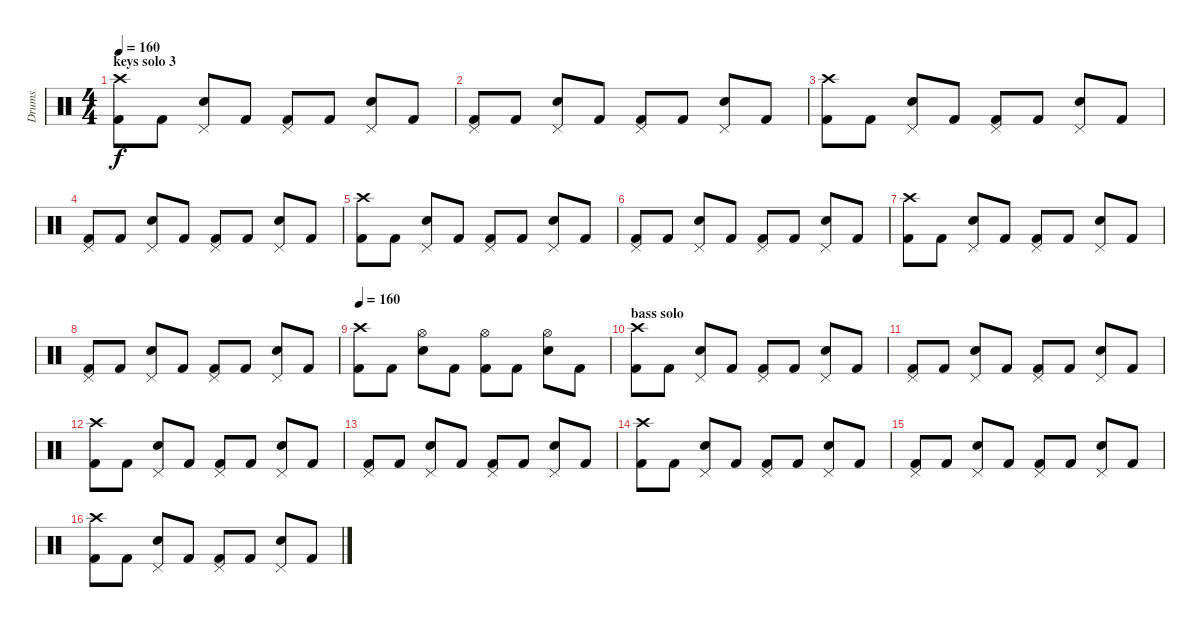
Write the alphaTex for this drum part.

\track ("Drums" "Drums") {instrument percussion}
\staff {score}
\articulation defaults
\ts (4 4)
\section ("" "keys solo 3")
\tempo 160
\clef neutral
\ks c
("Crash high (hit)" "Kick (hit) 2").8{dy f} "Kick (hit) 2".8 ("Pedal Hi-Hat (hit)" "Electric Snare (hit)").8 "Kick (hit) 2".8 ("Pedal Hi-Hat (hit)" "Kick (hit) 2").8 "Kick (hit) 2".8 ("Pedal Hi-Hat (hit)" "Electric Snare (hit)").8 "Kick (hit) 2".8 |
("Pedal Hi-Hat (hit)" "Kick (hit) 2").8 "Kick (hit) 2".8 ("Pedal Hi-Hat (hit)" "Electric Snare (hit)").8 "Kick (hit) 2".8 ("Pedal Hi-Hat (hit)" "Kick (hit) 2").8 "Kick (hit) 2".8 ("Pedal Hi-Hat (hit)" "Electric Snare (hit)").8 "Kick (hit) 2".8 |
("Crash high (hit)" "Kick (hit) 2").8 "Kick (hit) 2".8 ("Pedal Hi-Hat (hit)" "Electric Snare (hit)").8 "Kick (hit) 2".8 ("Pedal Hi-Hat (hit)" "Kick (hit) 2").8 "Kick (hit) 2".8 ("Pedal Hi-Hat (hit)" "Electric Snare (hit)").8 "Kick (hit) 2".8 |
("Pedal Hi-Hat (hit)" "Kick (hit) 2").8 "Kick (hit) 2".8 ("Pedal Hi-Hat (hit)" "Electric Snare (hit)").8 "Kick (hit) 2".8 ("Pedal Hi-Hat (hit)" "Kick (hit) 2").8 "Kick (hit) 2".8 ("Pedal Hi-Hat (hit)" "Electric Snare (hit)").8 "Kick (hit) 2".8 |
("Crash high (hit)" "Kick (hit) 2").8 "Kick (hit) 2".8 ("Pedal Hi-Hat (hit)" "Electric Snare (hit)").8 "Kick (hit) 2".8 ("Pedal Hi-Hat (hit)" "Kick (hit) 2").8 "Kick (hit) 2".8 ("Pedal Hi-Hat (hit)" "Electric Snare (hit)").8 "Kick (hit) 2".8 |
("Pedal Hi-Hat (hit)" "Kick (hit) 2").8 "Kick (hit) 2".8 ("Pedal Hi-Hat (hit)" "Electric Snare (hit)").8 "Kick (hit) 2".8 ("Pedal Hi-Hat (hit)" "Kick (hit) 2").8 "Kick (hit) 2".8 ("Pedal Hi-Hat (hit)" "Electric Snare (hit)").8 "Kick (hit) 2".8 |
("Crash high (hit)" "Kick (hit) 2").8 "Kick (hit) 2".8 ("Pedal Hi-Hat (hit)" "Electric Snare (hit)").8 "Kick (hit) 2".8 ("Pedal Hi-Hat (hit)" "Kick (hit) 2").8 "Kick (hit) 2".8 ("Pedal Hi-Hat (hit)" "Electric Snare (hit)").8 "Kick (hit) 2".8 |
("Pedal Hi-Hat (hit)" "Kick (hit) 2").8 "Kick (hit) 2".8 ("Pedal Hi-Hat (hit)" "Electric Snare (hit)").8 "Kick (hit) 2".8 ("Pedal Hi-Hat (hit)" "Kick (hit) 2").8 "Kick (hit) 2".8 ("Pedal Hi-Hat (hit)" "Electric Snare (hit)").8 "Kick (hit) 2".8 |
\tempo 160
("Crash high (hit)" "Kick (hit) 2").8 "Kick (hit) 2".8 ("Hi-Hat (open)" "Electric Snare (hit)").8 "Kick (hit) 2".8 ("Hi-Hat (open)" "Kick (hit) 2").8 "Kick (hit) 2".8 ("Hi-Hat (open)" "Electric Snare (hit)").8 "Kick (hit) 2".8 |
\section ("" "bass solo")
("Crash high (hit)" "Kick (hit) 2").8 "Kick (hit) 2".8 ("Pedal Hi-Hat (hit)" "Electric Snare (hit)").8 "Kick (hit) 2".8 ("Pedal Hi-Hat (hit)" "Kick (hit) 2").8 "Kick (hit) 2".8 ("Pedal Hi-Hat (hit)" "Electric Snare (hit)").8 "Kick (hit) 2".8 |
("Pedal Hi-Hat (hit)" "Kick (hit) 2").8 "Kick (hit) 2".8 ("Pedal Hi-Hat (hit)" "Electric Snare (hit)").8 "Kick (hit) 2".8 ("Pedal Hi-Hat (hit)" "Kick (hit) 2").8 "Kick (hit) 2".8 ("Pedal Hi-Hat (hit)" "Electric Snare (hit)").8 "Kick (hit) 2".8 |
("Crash high (hit)" "Kick (hit) 2").8 "Kick (hit) 2".8 ("Pedal Hi-Hat (hit)" "Electric Snare (hit)").8 "Kick (hit) 2".8 ("Pedal Hi-Hat (hit)" "Kick (hit) 2").8 "Kick (hit) 2".8 ("Pedal Hi-Hat (hit)" "Electric Snare (hit)").8 "Kick (hit) 2".8 |
("Pedal Hi-Hat (hit)" "Kick (hit) 2").8 "Kick (hit) 2".8 ("Pedal Hi-Hat (hit)" "Electric Snare (hit)").8 "Kick (hit) 2".8 ("Pedal Hi-Hat (hit)" "Kick (hit) 2").8 "Kick (hit) 2".8 ("Pedal Hi-Hat (hit)" "Electric Snare (hit)").8 "Kick (hit) 2".8 |
("Crash high (hit)" "Kick (hit) 2").8 "Kick (hit) 2".8 ("Pedal Hi-Hat (hit)" "Electric Snare (hit)").8 "Kick (hit) 2".8 ("Pedal Hi-Hat (hit)" "Kick (hit) 2").8 "Kick (hit) 2".8 ("Pedal Hi-Hat (hit)" "Electric Snare (hit)").8 "Kick (hit) 2".8 |
("Pedal Hi-Hat (hit)" "Kick (hit) 2").8 "Kick (hit) 2".8 ("Pedal Hi-Hat (hit)" "Electric Snare (hit)").8 "Kick (hit) 2".8 ("Pedal Hi-Hat (hit)" "Kick (hit) 2").8 "Kick (hit) 2".8 ("Pedal Hi-Hat (hit)" "Electric Snare (hit)").8 "Kick (hit) 2".8 |
("Crash high (hit)" "Kick (hit) 2").8 "Kick (hit) 2".8 ("Pedal Hi-Hat (hit)" "Electric Snare (hit)").8 "Kick (hit) 2".8 ("Pedal Hi-Hat (hit)" "Kick (hit) 2").8 "Kick (hit) 2".8 ("Pedal Hi-Hat (hit)" "Electric Snare (hit)").8 "Kick (hit) 2".8
